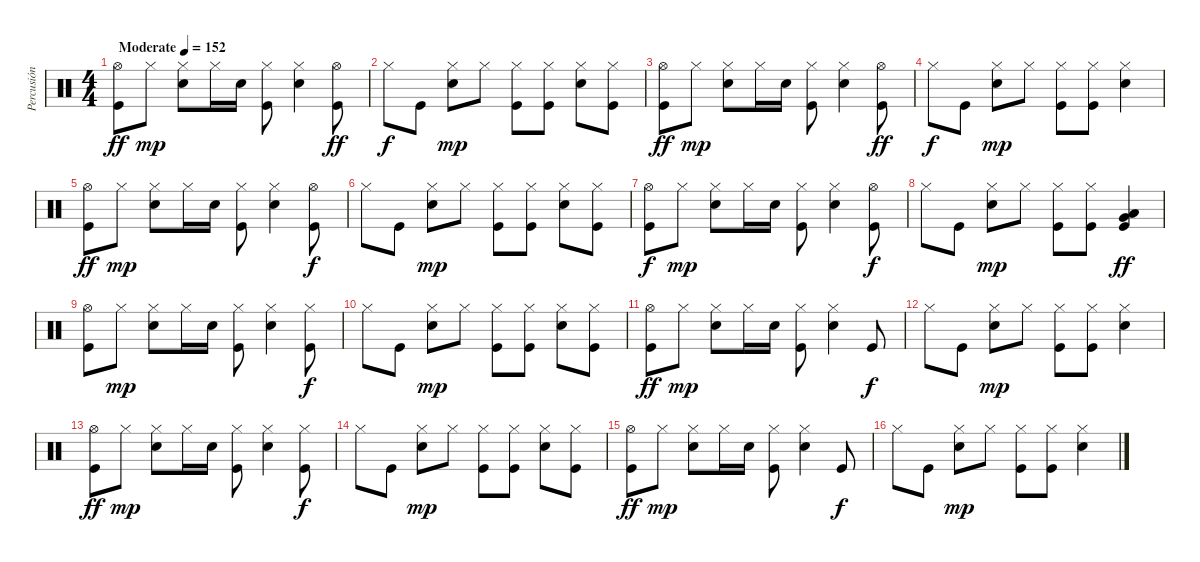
\track ("Percusión" "Percusión") {instrument percussion}
\staff {score}
\articulation defaults
\ts (4 4)
\tempo (152 "Moderate")
\clef neutral
\ks c
("Hi-Hat (open)" "Kick (hit)").8{dy ff} "Hi-Hat (closed)".8{dy mp} ("Snare (hit) 2" "Hi-Hat (closed)").8 "Hi-Hat (closed)".16 "Snare (hit) 2".16 ("Hi-Hat (closed)" "Kick (hit)").8 ("Snare (hit) 2" "Hi-Hat (closed)").4 ("Hi-Hat (open)" "Kick (hit)").8{dy ff} |
"Hi-Hat (closed)".8{dy f} "Kick (hit)".8 ("Hi-Hat (closed)" "Snare (hit) 2").8{dy mp} "Hi-Hat (closed)".8 ("Hi-Hat (closed)" "Kick (hit)").8 ("Hi-Hat (closed)" "Kick (hit)").8 ("Hi-Hat (closed)" "Snare (hit) 2").8 ("Hi-Hat (closed)" "Kick (hit)").8 |
("Hi-Hat (open)" "Kick (hit)").8{dy ff} "Hi-Hat (closed)".8{dy mp} ("Snare (hit) 2" "Hi-Hat (closed)").8 "Hi-Hat (closed)".16 "Snare (hit) 2".16 ("Hi-Hat (closed)" "Kick (hit)").8 ("Snare (hit) 2" "Hi-Hat (closed)").4 ("Hi-Hat (open)" "Kick (hit)").8{dy ff} |
"Hi-Hat (closed)".8{dy f} "Kick (hit)".8 ("Hi-Hat (closed)" "Snare (hit) 2").8{dy mp} "Hi-Hat (closed)".8 ("Hi-Hat (closed)" "Kick (hit)").8 ("Hi-Hat (closed)" "Kick (hit)").8 ("Hi-Hat (closed)" "Snare (hit) 2").4 |
("Hi-Hat (open)" "Kick (hit)").8{dy ff} "Hi-Hat (closed)".8{dy mp} ("Snare (hit) 2" "Hi-Hat (closed)").8 "Hi-Hat (closed)".16 "Snare (hit) 2".16 ("Hi-Hat (closed)" "Kick (hit)").8 ("Snare (hit) 2" "Hi-Hat (closed)").4 ("Hi-Hat (open)" "Kick (hit)").8{dy f} |
"Hi-Hat (closed)".8 "Kick (hit)".8 ("Hi-Hat (closed)" "Snare (hit) 2").8{dy mp} "Hi-Hat (closed)".8 ("Hi-Hat (closed)" "Kick (hit)").8 ("Hi-Hat (closed)" "Kick (hit)").8 ("Hi-Hat (closed)" "Snare (hit) 2").8 ("Hi-Hat (closed)" "Kick (hit)").8 |
("Hi-Hat (open)" "Kick (hit)").8{dy f} "Hi-Hat (closed)".8{dy mp} ("Snare (hit) 2" "Hi-Hat (closed)").8 "Hi-Hat (closed)".16 "Snare (hit) 2".16 ("Hi-Hat (closed)" "Kick (hit)").8 ("Snare (hit) 2" "Hi-Hat (closed)").4 ("Hi-Hat (open)" "Kick (hit)").8{dy f} |
"Hi-Hat (closed)".8 "Kick (hit)".8 ("Hi-Hat (closed)" "Snare (hit) 2").8{dy mp} "Hi-Hat (closed)".8 ("Hi-Hat (closed)" "Kick (hit)").8 ("Hi-Hat (closed)" "Kick (hit)").8 ("Low Tom (hit)" "Very Low Tom (hit)" "Kick (hit)").4{dy ff} |
("Hi-Hat (open)" "Kick (hit)").8 "Hi-Hat (closed)".8{dy mp} ("Snare (hit) 2" "Hi-Hat (closed)").8 "Hi-Hat (closed)".16 "Snare (hit) 2".16 ("Hi-Hat (closed)" "Kick (hit)").8 ("Snare (hit) 2" "Hi-Hat (closed)").4 ("Hi-Hat (closed)" "Kick (hit)").8{dy f} |
"Hi-Hat (closed)".8 "Kick (hit)".8 ("Hi-Hat (closed)" "Snare (hit) 2").8{dy mp} "Hi-Hat (closed)".8 ("Hi-Hat (closed)" "Kick (hit)").8 ("Hi-Hat (closed)" "Kick (hit)").8 ("Hi-Hat (closed)" "Snare (hit) 2").8 ("Hi-Hat (closed)" "Kick (hit)").8 |
("Hi-Hat (open)" "Kick (hit)").8{dy ff} "Hi-Hat (closed)".8{dy mp} ("Snare (hit) 2" "Hi-Hat (closed)").8 "Hi-Hat (closed)".16 "Snare (hit) 2".16 ("Hi-Hat (closed)" "Kick (hit)").8 ("Snare (hit) 2" "Hi-Hat (closed)").4 "Kick (hit)".8{dy f} |
"Hi-Hat (closed)".8 "Kick (hit)".8 ("Hi-Hat (closed)" "Snare (hit) 2").8{dy mp} "Hi-Hat (closed)".8 ("Hi-Hat (closed)" "Kick (hit)").8 ("Hi-Hat (closed)" "Kick (hit)").8 ("Hi-Hat (closed)" "Snare (hit) 2").4 |
("Hi-Hat (open)" "Kick (hit)").8{dy ff} "Hi-Hat (closed)".8{dy mp} ("Snare (hit) 2" "Hi-Hat (closed)").8 "Hi-Hat (closed)".16 "Snare (hit) 2".16 ("Hi-Hat (closed)" "Kick (hit)").8 ("Snare (hit) 2" "Hi-Hat (closed)").4 ("Hi-Hat (closed)" "Kick (hit)").8{dy f} |
"Hi-Hat (closed)".8 "Kick (hit)".8 ("Hi-Hat (closed)" "Snare (hit) 2").8{dy mp} "Hi-Hat (closed)".8 ("Hi-Hat (closed)" "Kick (hit)").8 ("Hi-Hat (closed)" "Kick (hit)").8 ("Hi-Hat (closed)" "Snare (hit) 2").8 ("Hi-Hat (closed)" "Kick (hit)").8 |
("Hi-Hat (open)" "Kick (hit)").8{dy ff} "Hi-Hat (closed)".8{dy mp} ("Snare (hit) 2" "Hi-Hat (closed)").8 "Hi-Hat (closed)".16 "Snare (hit) 2".16 ("Hi-Hat (closed)" "Kick (hit)").8 ("Snare (hit) 2" "Hi-Hat (closed)").4 "Kick (hit)".8{dy f} |
"Hi-Hat (closed)".8 "Kick (hit)".8 ("Hi-Hat (closed)" "Snare (hit) 2").8{dy mp} "Hi-Hat (closed)".8 ("Hi-Hat (closed)" "Kick (hit)").8 ("Hi-Hat (closed)" "Kick (hit)").8 ("Hi-Hat (closed)" "Snare (hit) 2").4
